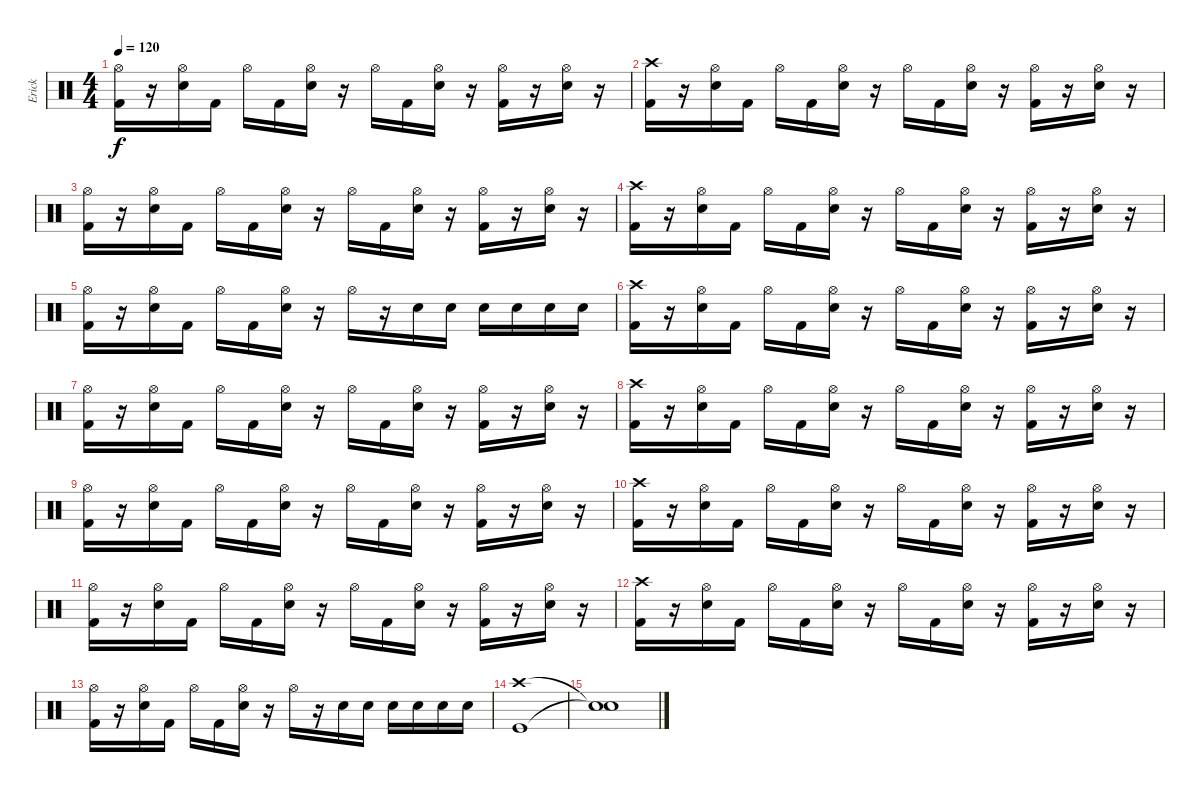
\track ("Erick" "Erick") {instrument percussion}
\staff {score}
\articulation defaults
\ts (4 4)
\tempo 120
\clef neutral
\ks c
("Hi-Hat (open)" "Kick (hit) 2").16{dy f} r.16 ("Hi-Hat (open)" "Electric Snare (hit)").16 "Kick (hit) 2".16 "Hi-Hat (open)".16 "Kick (hit) 2".16 ("Hi-Hat (open)" "Electric Snare (hit)").16 r.16 "Hi-Hat (open)".16 "Kick (hit) 2".16 ("Hi-Hat (open)" "Electric Snare (hit)").16 r.16 ("Hi-Hat (open)" "Kick (hit) 2").16 r.16 ("Hi-Hat (open)" "Electric Snare (hit)").16 r.16 |
("Crash high (hit)" "Kick (hit) 2").16 r.16 ("Hi-Hat (open)" "Electric Snare (hit)").16 "Kick (hit) 2".16 "Hi-Hat (open)".16 "Kick (hit) 2".16 ("Hi-Hat (open)" "Electric Snare (hit)").16 r.16 "Hi-Hat (open)".16 "Kick (hit) 2".16 ("Hi-Hat (open)" "Electric Snare (hit)").16 r.16 ("Hi-Hat (open)" "Kick (hit) 2").16 r.16 ("Hi-Hat (open)" "Electric Snare (hit)").16 r.16 |
("Hi-Hat (open)" "Kick (hit) 2").16 r.16 ("Hi-Hat (open)" "Electric Snare (hit)").16 "Kick (hit) 2".16 "Hi-Hat (open)".16 "Kick (hit) 2".16 ("Hi-Hat (open)" "Electric Snare (hit)").16 r.16 "Hi-Hat (open)".16 "Kick (hit) 2".16 ("Hi-Hat (open)" "Electric Snare (hit)").16 r.16 ("Hi-Hat (open)" "Kick (hit) 2").16 r.16 ("Hi-Hat (open)" "Electric Snare (hit)").16 r.16 |
("Crash high (hit)" "Kick (hit) 2").16 r.16 ("Hi-Hat (open)" "Electric Snare (hit)").16 "Kick (hit) 2".16 "Hi-Hat (open)".16 "Kick (hit) 2".16 ("Hi-Hat (open)" "Electric Snare (hit)").16 r.16 "Hi-Hat (open)".16 "Kick (hit) 2".16 ("Hi-Hat (open)" "Electric Snare (hit)").16 r.16 ("Hi-Hat (open)" "Kick (hit) 2").16 r.16 ("Hi-Hat (open)" "Electric Snare (hit)").16 r.16 |
("Hi-Hat (open)" "Kick (hit) 2").16 r.16 ("Hi-Hat (open)" "Electric Snare (hit)").16 "Kick (hit) 2".16 "Hi-Hat (open)".16 "Kick (hit) 2".16 ("Hi-Hat (open)" "Electric Snare (hit)").16 r.16 "Hi-Hat (open)".16 r.16 "Electric Snare (hit)".16 "Electric Snare (hit)".16 "Electric Snare (hit)".16 "Electric Snare (hit)".16 "Electric Snare (hit)".16 "Electric Snare (hit)".16 |
("Crash high (hit)" "Kick (hit) 2").16 r.16 ("Hi-Hat (open)" "Electric Snare (hit)").16 "Kick (hit) 2".16 "Hi-Hat (open)".16 "Kick (hit) 2".16 ("Hi-Hat (open)" "Electric Snare (hit)").16 r.16 "Hi-Hat (open)".16 "Kick (hit) 2".16 ("Hi-Hat (open)" "Electric Snare (hit)").16 r.16 ("Hi-Hat (open)" "Kick (hit) 2").16 r.16 ("Hi-Hat (open)" "Electric Snare (hit)").16 r.16 |
("Hi-Hat (open)" "Kick (hit) 2").16 r.16 ("Hi-Hat (open)" "Electric Snare (hit)").16 "Kick (hit) 2".16 "Hi-Hat (open)".16 "Kick (hit) 2".16 ("Hi-Hat (open)" "Electric Snare (hit)").16 r.16 "Hi-Hat (open)".16 "Kick (hit) 2".16 ("Hi-Hat (open)" "Electric Snare (hit)").16 r.16 ("Hi-Hat (open)" "Kick (hit) 2").16 r.16 ("Hi-Hat (open)" "Electric Snare (hit)").16 r.16 |
("Crash high (hit)" "Kick (hit) 2").16 r.16 ("Hi-Hat (open)" "Electric Snare (hit)").16 "Kick (hit) 2".16 "Hi-Hat (open)".16 "Kick (hit) 2".16 ("Hi-Hat (open)" "Electric Snare (hit)").16 r.16 "Hi-Hat (open)".16 "Kick (hit) 2".16 ("Hi-Hat (open)" "Electric Snare (hit)").16 r.16 ("Hi-Hat (open)" "Kick (hit) 2").16 r.16 ("Hi-Hat (open)" "Electric Snare (hit)").16 r.16 |
("Hi-Hat (open)" "Kick (hit) 2").16 r.16 ("Hi-Hat (open)" "Electric Snare (hit)").16 "Kick (hit) 2".16 "Hi-Hat (open)".16 "Kick (hit) 2".16 ("Hi-Hat (open)" "Electric Snare (hit)").16 r.16 "Hi-Hat (open)".16 "Kick (hit) 2".16 ("Hi-Hat (open)" "Electric Snare (hit)").16 r.16 ("Hi-Hat (open)" "Kick (hit) 2").16 r.16 ("Hi-Hat (open)" "Electric Snare (hit)").16 r.16 |
("Crash high (hit)" "Kick (hit) 2").16 r.16 ("Hi-Hat (open)" "Electric Snare (hit)").16 "Kick (hit) 2".16 "Hi-Hat (open)".16 "Kick (hit) 2".16 ("Hi-Hat (open)" "Electric Snare (hit)").16 r.16 "Hi-Hat (open)".16 "Kick (hit) 2".16 ("Hi-Hat (open)" "Electric Snare (hit)").16 r.16 ("Hi-Hat (open)" "Kick (hit) 2").16 r.16 ("Hi-Hat (open)" "Electric Snare (hit)").16 r.16 |
("Hi-Hat (open)" "Kick (hit) 2").16 r.16 ("Hi-Hat (open)" "Electric Snare (hit)").16 "Kick (hit) 2".16 "Hi-Hat (open)".16 "Kick (hit) 2".16 ("Hi-Hat (open)" "Electric Snare (hit)").16 r.16 "Hi-Hat (open)".16 "Kick (hit) 2".16 ("Hi-Hat (open)" "Electric Snare (hit)").16 r.16 ("Hi-Hat (open)" "Kick (hit) 2").16 r.16 ("Hi-Hat (open)" "Electric Snare (hit)").16 r.16 |
("Crash high (hit)" "Kick (hit) 2").16 r.16 ("Hi-Hat (open)" "Electric Snare (hit)").16 "Kick (hit) 2".16 "Hi-Hat (open)".16 "Kick (hit) 2".16 ("Hi-Hat (open)" "Electric Snare (hit)").16 r.16 "Hi-Hat (open)".16 "Kick (hit) 2".16 ("Hi-Hat (open)" "Electric Snare (hit)").16 r.16 ("Hi-Hat (open)" "Kick (hit) 2").16 r.16 ("Hi-Hat (open)" "Electric Snare (hit)").16 r.16 |
("Hi-Hat (open)" "Kick (hit) 2").16 r.16 ("Hi-Hat (open)" "Electric Snare (hit)").16 "Kick (hit) 2".16 "Hi-Hat (open)".16 "Kick (hit) 2".16 ("Hi-Hat (open)" "Electric Snare (hit)").16 r.16 "Hi-Hat (open)".16 r.16 "Electric Snare (hit)".16 "Electric Snare (hit)".16 "Electric Snare (hit)".16 "Electric Snare (hit)".16 "Electric Snare (hit)".16 "Electric Snare (hit)".16 |
("Kick (hit)" "Crash high (hit)").1 |
("Snare (hit)"{t} "Snare (hit)"{t}).1
